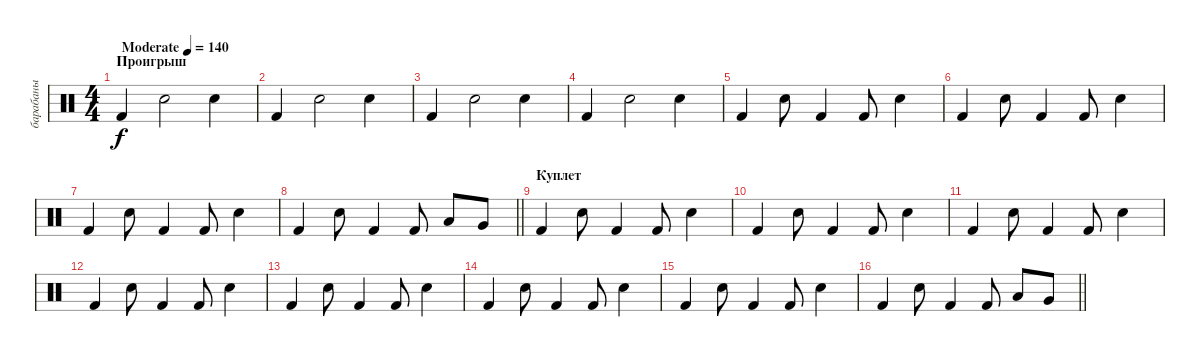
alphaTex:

\track ("барабаны" "барабаны") {instrument percussion}
\staff {score}
\articulation defaults
\ts (4 4)
\section ("" "Проигрыш")
\tempo (140 "Moderate")
\clef neutral
\ks c "Kick (hit) 2".4{dy f} "Electric Snare (hit)".2 "Electric Snare (hit)".4
|
"Kick (hit) 2".4 "Electric Snare (hit)".2 "Electric Snare (hit)".4 |
"Kick (hit) 2".4 "Electric Snare (hit)".2 "Electric Snare (hit)".4 |
"Kick (hit) 2".4 "Electric Snare (hit)".2 "Electric Snare (hit)".4 |
"Kick (hit) 2".4 "Electric Snare (hit)".8 "Kick (hit) 2".4 "Kick (hit) 2".8 "Electric Snare (hit)".4 |
"Kick (hit) 2".4 "Electric Snare (hit)".8 "Kick (hit) 2".4 "Kick (hit) 2".8 "Electric Snare (hit)".4 |
"Kick (hit) 2".4 "Electric Snare (hit)".8 "Kick (hit) 2".4 "Kick (hit) 2".8 "Electric Snare (hit)".4 |
\barLineRight lightlight "Kick (hit) 2".4 "Electric Snare (hit)".8 "Kick (hit) 2".4 "Kick (hit) 2".8 "Low Tom (hit)".8 "Very Low Tom (hit)".8
|
\section ("" "Куплет")
"Kick (hit) 2".4 "Electric Snare (hit)".8 "Kick (hit) 2".4 "Kick (hit) 2".8 "Electric Snare (hit)".4 |
"Kick (hit) 2".4 "Electric Snare (hit)".8 "Kick (hit) 2".4 "Kick (hit) 2".8 "Electric Snare (hit)".4 |
"Kick (hit) 2".4 "Electric Snare (hit)".8 "Kick (hit) 2".4 "Kick (hit) 2".8 "Electric Snare (hit)".4 |
"Kick (hit) 2".4 "Electric Snare (hit)".8 "Kick (hit) 2".4 "Kick (hit) 2".8 "Electric Snare (hit)".4 |
"Kick (hit) 2".4 "Electric Snare (hit)".8 "Kick (hit) 2".4 "Kick (hit) 2".8 "Electric Snare (hit)".4 |
"Kick (hit) 2".4 "Electric Snare (hit)".8 "Kick (hit) 2".4 "Kick (hit) 2".8 "Electric Snare (hit)".4 |
"Kick (hit) 2".4 "Electric Snare (hit)".8 "Kick (hit) 2".4 "Kick (hit) 2".8 "Electric Snare (hit)".4 |
\barLineRight lightlight "Kick (hit) 2".4 "Electric Snare (hit)".8 "Kick (hit) 2".4 "Kick (hit) 2".8 "Low Tom (hit)".8 "Very Low Tom (hit)".8
